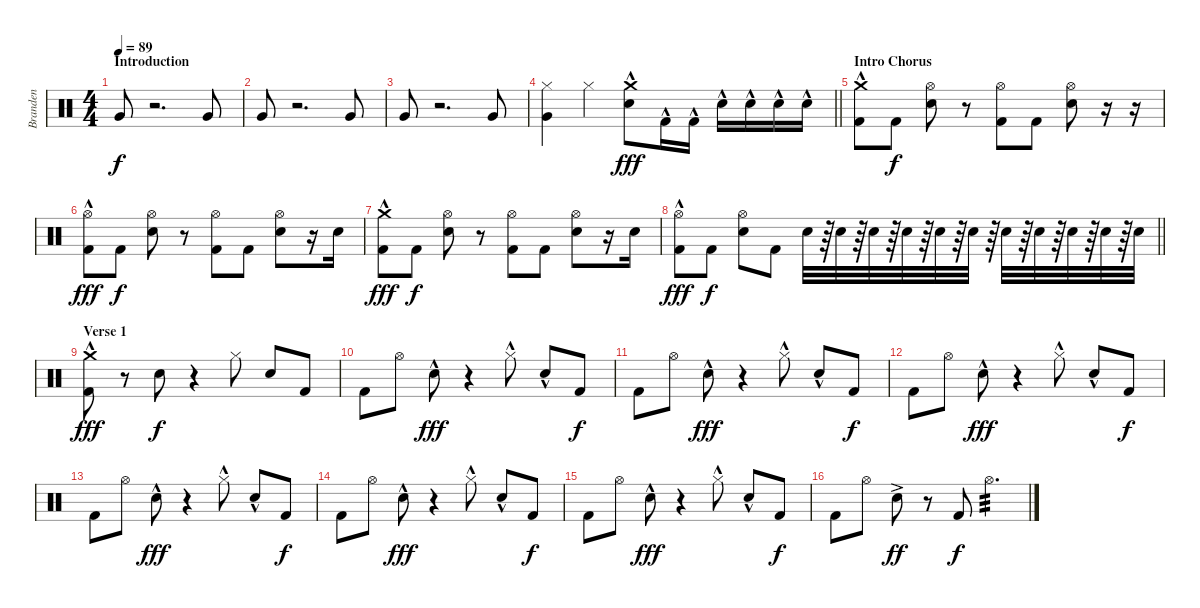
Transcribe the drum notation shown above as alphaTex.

\track ("Branden" "Branden") {instrument percussion}
\staff {score}
\articulation defaults
\ts (4 4)
\section ("" "Introduction")
\tempo 89
\clef neutral
\ks c "Very Low Tom (hit)".8{dy f}
r.2{d} "Very Low Tom (hit)".8 |
"Very Low Tom (hit)".8 r.2{d} "Very Low Tom (hit)".8 |
"Very Low Tom (hit)".8 r.2{d} "Very Low Tom (hit)".8 |
\barLineRight lightlight
("Very Low Tom (hit)" "Hi-Hat (closed)").4 "Hi-Hat (closed)".4 ("Crash medium (hit)"{hac} "Electric Snare (hit)"{hac}).8{dy fff} "Kick (hit) 2"{hac}.16 "Kick (hit) 2"{hac}.16 "Electric Snare (hit)"{hac}.16 "Electric Snare (hit)"{hac}.16 "Electric Snare (hit)"{hac}.16 "Electric Snare (hit)"{hac}.16 |
\section ("" "Intro Chorus")
("Crash medium (hit)"{hac} "Kick (hit) 2").8 "Kick (hit) 2".8{dy f} ("Hi-Hat (open)" "Electric Snare (hit)").8 r.8 ("Hi-Hat (open)" "Kick (hit) 2").8 "Kick (hit) 2".8 ("Hi-Hat (open)" "Electric Snare (hit)").8 r.16 r.16 |
("Hi-Hat (open)"{hac} "Kick (hit) 2").8{dy fff} "Kick (hit) 2".8{dy f} ("Hi-Hat (open)" "Electric Snare (hit)").8 r.8 ("Hi-Hat (open)" "Kick (hit) 2").8 "Kick (hit) 2".8 ("Hi-Hat (open)" "Electric Snare (hit)").8 r.16 "Electric Snare (hit)".16 |
("Crash medium (hit)"{hac} "Kick (hit) 2").8{dy fff} "Kick (hit) 2".8{dy f} ("Hi-Hat (open)" "Electric Snare (hit)").8 r.8 ("Hi-Hat (open)" "Kick (hit) 2").8 "Kick (hit) 2".8 ("Hi-Hat (open)" "Electric Snare (hit)").8 r.16 "Electric Snare (hit)".16 |
\barLineRight lightlight
("Hi-Hat (open)"{hac} "Kick (hit) 2").8{dy fff} "Kick (hit) 2".8{dy f} ("Hi-Hat (open)" "Electric Snare (hit)").8 "Kick (hit) 2".8 "Electric Snare (hit)".32 r.64 "Electric Snare (hit)".32 r.64 "Electric Snare (hit)".32 r.64 "Electric Snare (hit)".32 r.64 "Electric Snare (hit)".32 r.64 "Electric Snare (hit)".32 r.64 "Electric Snare (hit)".32 r.64 "Electric Snare (hit)".32 r.64 "Electric Snare (hit)".32 r.64 "Electric Snare (hit)".32 r.64 "Electric Snare (hit)".32 |
\section ("" "Verse 1")
("Crash medium (hit)"{hac} "Kick (hit) 2").8{dy fff volume 14} r.8 "Electric Snare (hit)".8{dy f} r.4 "Hi-Hat (closed)".8 "Electric Snare (hit)".8 "Kick (hit) 2".8 |
"Kick (hit) 2".8 "Hi-Hat (open)".8 "Electric Snare (hit)"{hac}.8{dy fff} r.4 "Hi-Hat (closed)"{hac}.8 "Electric Snare (hit)"{hac}.8 "Kick (hit) 2".8{dy f} |
"Kick (hit) 2".8 "Hi-Hat (open)".8 "Electric Snare (hit)"{hac}.8{dy fff} r.4 "Hi-Hat (closed)"{hac}.8 "Electric Snare (hit)"{hac}.8 "Kick (hit) 2".8{dy f} |
"Kick (hit) 2".8 "Hi-Hat (open)".8 "Electric Snare (hit)"{hac}.8{dy fff} r.4 "Hi-Hat (closed)"{hac}.8 "Electric Snare (hit)"{hac}.8 "Kick (hit) 2".8{dy f} |
"Kick (hit) 2".8 "Hi-Hat (open)".8 "Electric Snare (hit)"{hac}.8{dy fff} r.4 "Hi-Hat (closed)"{hac}.8 "Electric Snare (hit)"{hac}.8 "Kick (hit) 2".8{dy f} |
"Kick (hit) 2".8 "Hi-Hat (open)".8 "Electric Snare (hit)"{hac}.8{dy fff} r.4 "Hi-Hat (closed)"{hac}.8 "Electric Snare (hit)"{hac}.8 "Kick (hit) 2".8{dy f} |
"Kick (hit) 2".8 "Hi-Hat (open)".8 "Electric Snare (hit)"{hac}.8{dy fff} r.4 "Hi-Hat (closed)"{hac}.8 "Electric Snare (hit)"{hac}.8 "Kick (hit) 2".8{dy f} |
"Kick (hit) 2".8 "Hi-Hat (open)".8 "Electric Snare (hit)"{ac}.8{dy ff} r.8 "Kick (hit) 2".8{dy f} "Hi-Hat (open)".4{d tp 3}
